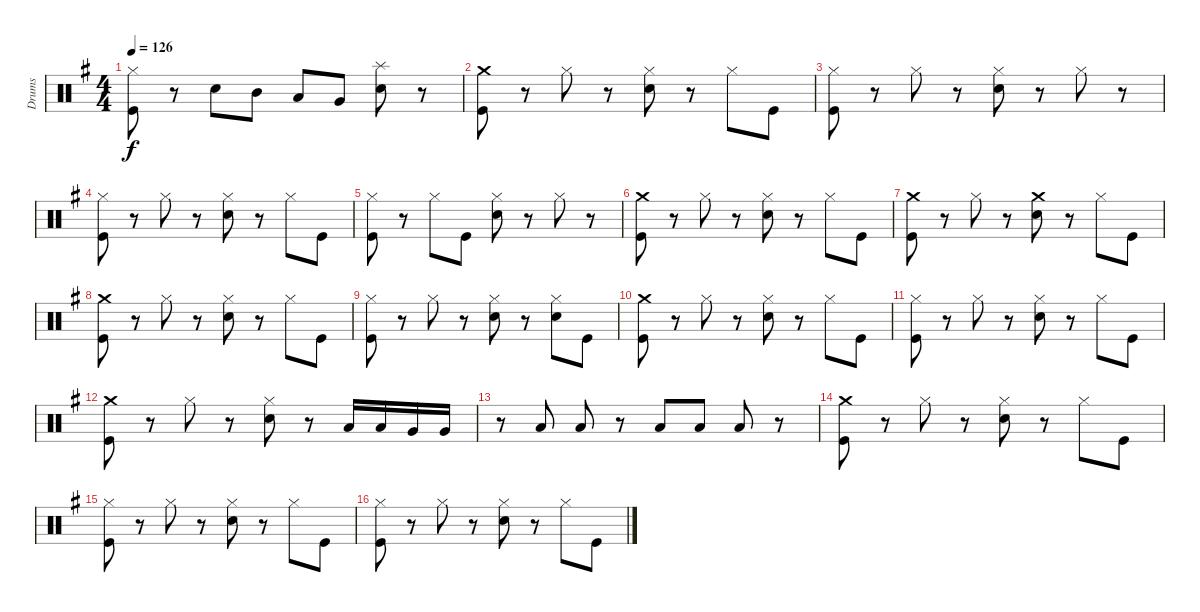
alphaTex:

\track ("Drums" "Drums") {instrument percussion}
\staff {score}
\articulation defaults
\ts (4 4)
\tempo 126
\clef neutral
\ks g
("Kick (hit)" "Hi-Hat (closed)").8{dy f} r.8 "Electric Snare (hit)".8 "Mid Tom (hit)".8 "Low Tom (hit)".8 "Very Low Tom (hit)".8 ("Electric Snare (hit)" "Splash (hit)").8 r.8 |
("Kick (hit)" "Crash medium (hit)").8 r.8 "Hi-Hat (closed)".8 r.8 ("Electric Snare (hit)" "Hi-Hat (closed)").8 r.8 "Hi-Hat (closed)".8 "Kick (hit)".8 |
("Kick (hit)" "Hi-Hat (closed)").8 r.8 "Hi-Hat (closed)".8 r.8 ("Electric Snare (hit)" "Hi-Hat (closed)").8 r.8 "Hi-Hat (closed)".8 r.8 |
("Kick (hit)" "Hi-Hat (closed)").8 r.8 "Hi-Hat (closed)".8 r.8 ("Electric Snare (hit)" "Hi-Hat (closed)").8 r.8 "Hi-Hat (closed)".8 "Kick (hit)".8 |
("Kick (hit)" "Hi-Hat (closed)").8 r.8 "Hi-Hat (closed)".8 "Kick (hit)".8 ("Electric Snare (hit)" "Hi-Hat (closed)").8 r.8 "Hi-Hat (closed)".8 r.8 |
("Kick (hit)" "Crash medium (hit)").8 r.8 "Hi-Hat (closed)".8 r.8 ("Electric Snare (hit)" "Hi-Hat (closed)").8 r.8 "Hi-Hat (closed)".8 "Kick (hit)".8 |
("Kick (hit)" "Crash medium (hit)").8 r.8 "Hi-Hat (closed)".8 r.8 ("Electric Snare (hit)" "Crash medium (hit)").8 r.8 "Hi-Hat (closed)".8 "Kick (hit)".8 |
("Kick (hit)" "Crash medium (hit)").8 r.8 "Hi-Hat (closed)".8 r.8 ("Electric Snare (hit)" "Hi-Hat (closed)").8 r.8 "Hi-Hat (closed)".8 "Kick (hit)".8 |
("Kick (hit)" "Hi-Hat (closed)").8 r.8 "Hi-Hat (closed)".8 r.8 ("Electric Snare (hit)" "Hi-Hat (closed)").8 r.8 ("Electric Snare (hit)" "Hi-Hat (closed)").8 "Kick (hit)".8 |
("Kick (hit)" "Crash medium (hit)").8 r.8 "Hi-Hat (closed)".8 r.8 ("Electric Snare (hit)" "Hi-Hat (closed)").8 r.8 "Hi-Hat (closed)".8 "Kick (hit)".8 |
("Kick (hit)" "Hi-Hat (closed)").8 r.8 "Hi-Hat (closed)".8 r.8 ("Electric Snare (hit)" "Hi-Hat (closed)").8 r.8 "Hi-Hat (closed)".8 "Kick (hit)".8 |
("Kick (hit)" "Crash medium (hit)").8 r.8 "Hi-Hat (closed)".8 r.8 ("Electric Snare (hit)" "Hi-Hat (closed)").8 r.8 "Low Tom (hit)".16 "Low Tom (hit)".16 "Very Low Tom (hit)".16 "Very Low Tom (hit)".16 |
r.8 "Low Floor Tom (hit)".8 "Low Floor Tom (hit)".8 r.8 "Low Floor Tom (hit)".8 "Low Floor Tom (hit)".8 "Low Floor Tom (hit)".8 r.8 |
("Kick (hit)" "Crash medium (hit)").8 r.8 "Hi-Hat (closed)".8 r.8 ("Electric Snare (hit)" "Hi-Hat (closed)").8 r.8 "Hi-Hat (closed)".8 "Kick (hit)".8 |
("Kick (hit)" "Hi-Hat (closed)").8 r.8 "Hi-Hat (closed)".8 r.8 ("Electric Snare (hit)" "Hi-Hat (closed)").8 r.8 "Hi-Hat (closed)".8 "Kick (hit)".8 |
("Kick (hit)" "Hi-Hat (closed)").8 r.8 "Hi-Hat (closed)".8 r.8 ("Electric Snare (hit)" "Hi-Hat (closed)").8 r.8 "Hi-Hat (closed)".8 "Kick (hit)".8
